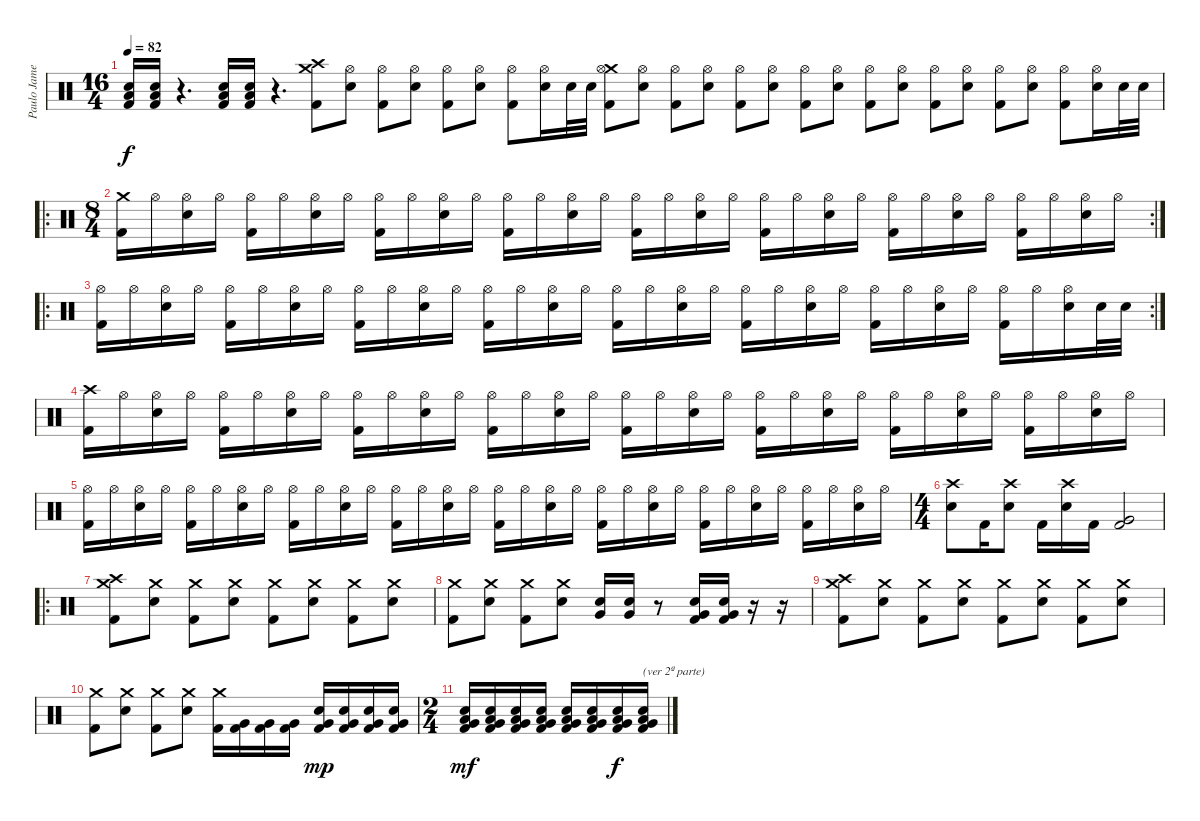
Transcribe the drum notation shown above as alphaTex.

\track ("Paulo James" "Paulo Jame") {instrument percussion}
\staff {score}
\articulation defaults
\ts (16 4)
\tempo 82
\clef neutral
\ks c
("Low Floor Tom (hit)" "Electric Snare (hit)" "Kick (hit) 2").16{dy f volume 6 balance 0} ("Low Floor Tom (hit)" "Electric Snare (hit)" "Kick (hit) 2").16 r.4{d} ("Low Floor Tom (hit)" "Electric Snare (hit)" "Kick (hit) 2").16{balance 16} ("Low Floor Tom (hit)" "Electric Snare (hit)" "Kick (hit) 2").16 r.4{d volume 13} ("Crash medium (hit)" "Crash high (hit)" "Kick (hit) 2").8 ("Hi-Hat (open)" "Electric Snare (hit)").8 ("Hi-Hat (open)" "Kick (hit) 2").8 ("Hi-Hat (open)" "Electric Snare (hit)").8 ("Hi-Hat (open)" "Kick (hit) 2").8 ("Hi-Hat (open)" "Electric Snare (hit)").8 ("Hi-Hat (open)" "Kick (hit) 2").8 ("Hi-Hat (open)" "Electric Snare (hit)").16 "Electric Snare (hit)".32 "Electric Snare (hit)".32 ("Crash medium (hit)" "Hi-Hat (open)" "Kick (hit) 2").8 ("Hi-Hat (open)" "Electric Snare (hit)").8 ("Hi-Hat (open)" "Kick (hit) 2").8 ("Hi-Hat (open)" "Electric Snare (hit)").8 ("Hi-Hat (open)" "Kick (hit) 2").8 ("Hi-Hat (open)" "Electric Snare (hit)").8 ("Hi-Hat (open)" "Kick (hit) 2").8 ("Hi-Hat (open)" "Electric Snare (hit)").8 ("Hi-Hat (open)" "Kick (hit) 2").8 ("Hi-Hat (open)" "Electric Snare (hit)").8 ("Hi-Hat (open)" "Kick (hit) 2").8 ("Hi-Hat (open)" "Electric Snare (hit)").8 ("Hi-Hat (open)" "Kick (hit) 2").8 ("Hi-Hat (open)" "Electric Snare (hit)").8 ("Hi-Hat (open)" "Kick (hit) 2").8 ("Hi-Hat (open)" "Electric Snare (hit)").16 "Electric Snare (hit)".32 "Electric Snare (hit)".32 |
\ro
\rc 2
\ts (8 4)
("Crash medium (hit)" "Kick (hit) 2").16 "Hi-Hat (open)".16 ("Hi-Hat (open)" "Electric Snare (hit)").16 "Hi-Hat (open)".16 ("Hi-Hat (open)" "Kick (hit) 2").16 "Hi-Hat (open)".16 ("Hi-Hat (open)" "Electric Snare (hit)").16 "Hi-Hat (open)".16 ("Hi-Hat (open)" "Kick (hit) 2").16 "Hi-Hat (open)".16 ("Hi-Hat (open)" "Electric Snare (hit)").16 "Hi-Hat (open)".16 ("Hi-Hat (open)" "Kick (hit) 2").16 "Hi-Hat (open)".16 ("Hi-Hat (open)" "Electric Snare (hit)").16 "Hi-Hat (open)".16 ("Hi-Hat (open)" "Kick (hit) 2").16 "Hi-Hat (open)".16 ("Hi-Hat (open)" "Electric Snare (hit)").16 "Hi-Hat (open)".16 ("Hi-Hat (open)" "Kick (hit) 2").16 "Hi-Hat (open)".16 ("Hi-Hat (open)" "Electric Snare (hit)").16 "Hi-Hat (open)".16 ("Hi-Hat (open)" "Kick (hit) 2").16 "Hi-Hat (open)".16 ("Hi-Hat (open)" "Electric Snare (hit)").16 "Hi-Hat (open)".16 ("Hi-Hat (open)" "Kick (hit) 2").16 "Hi-Hat (open)".16 ("Hi-Hat (open)" "Electric Snare (hit)").16 "Hi-Hat (open)".16 |
\ro
\rc 2
("Hi-Hat (open)" "Kick (hit) 2").16 "Hi-Hat (open)".16 ("Hi-Hat (open)" "Electric Snare (hit)").16 "Hi-Hat (open)".16 ("Hi-Hat (open)" "Kick (hit) 2").16 "Hi-Hat (open)".16 ("Hi-Hat (open)" "Electric Snare (hit)").16 "Hi-Hat (open)".16 ("Hi-Hat (open)" "Kick (hit) 2").16 "Hi-Hat (open)".16 ("Hi-Hat (open)" "Electric Snare (hit)").16 "Hi-Hat (open)".16 ("Hi-Hat (open)" "Kick (hit) 2").16 "Hi-Hat (open)".16 ("Hi-Hat (open)" "Electric Snare (hit)").16 "Hi-Hat (open)".16 ("Hi-Hat (open)" "Kick (hit) 2").16 "Hi-Hat (open)".16 ("Hi-Hat (open)" "Electric Snare (hit)").16 "Hi-Hat (open)".16 ("Hi-Hat (open)" "Kick (hit) 2").16 "Hi-Hat (open)".16 ("Hi-Hat (open)" "Electric Snare (hit)").16 "Hi-Hat (open)".16 ("Hi-Hat (open)" "Kick (hit) 2").16 "Hi-Hat (open)".16 ("Hi-Hat (open)" "Electric Snare (hit)").16 "Hi-Hat (open)".16 ("Hi-Hat (open)" "Kick (hit) 2").16 "Hi-Hat (open)".16 ("Hi-Hat (open)" "Electric Snare (hit)").16 "Electric Snare (hit)".32 "Electric Snare (hit)".32 |
("Crash high (hit)" "Kick (hit) 2").16 "Hi-Hat (open)".16 ("Hi-Hat (open)" "Electric Snare (hit)").16 "Hi-Hat (open)".16 ("Hi-Hat (open)" "Kick (hit) 2").16 "Hi-Hat (open)".16 ("Hi-Hat (open)" "Electric Snare (hit)").16 "Hi-Hat (open)".16 ("Hi-Hat (open)" "Kick (hit) 2").16 "Hi-Hat (open)".16 ("Hi-Hat (open)" "Electric Snare (hit)").16 "Hi-Hat (open)".16 ("Hi-Hat (open)" "Kick (hit) 2").16 "Hi-Hat (open)".16 ("Hi-Hat (open)" "Electric Snare (hit)").16 "Hi-Hat (open)".16 ("Hi-Hat (open)" "Kick (hit) 2").16 "Hi-Hat (open)".16 ("Hi-Hat (open)" "Electric Snare (hit)").16 "Hi-Hat (open)".16 ("Hi-Hat (open)" "Kick (hit) 2").16 "Hi-Hat (open)".16 ("Hi-Hat (open)" "Electric Snare (hit)").16 "Hi-Hat (open)".16 ("Hi-Hat (open)" "Kick (hit) 2").16 "Hi-Hat (open)".16 ("Hi-Hat (open)" "Electric Snare (hit)").16 "Hi-Hat (open)".16 ("Hi-Hat (open)" "Kick (hit) 2").16 "Hi-Hat (open)".16 ("Hi-Hat (open)" "Electric Snare (hit)").16 "Hi-Hat (open)".16 |
("Hi-Hat (open)" "Kick (hit) 2").16 "Hi-Hat (open)".16 ("Hi-Hat (open)" "Electric Snare (hit)").16 "Hi-Hat (open)".16 ("Hi-Hat (open)" "Kick (hit) 2").16 "Hi-Hat (open)".16 ("Hi-Hat (open)" "Electric Snare (hit)").16 "Hi-Hat (open)".16 ("Hi-Hat (open)" "Kick (hit) 2").16 "Hi-Hat (open)".16 ("Hi-Hat (open)" "Electric Snare (hit)").16 "Hi-Hat (open)".16 ("Hi-Hat (open)" "Kick (hit) 2").16 "Hi-Hat (open)".16 ("Hi-Hat (open)" "Electric Snare (hit)").16 "Hi-Hat (open)".16 ("Hi-Hat (open)" "Kick (hit) 2").16 "Hi-Hat (open)".16 ("Hi-Hat (open)" "Electric Snare (hit)").16 "Hi-Hat (open)".16 ("Hi-Hat (open)" "Kick (hit) 2").16 "Hi-Hat (open)".16 ("Hi-Hat (open)" "Electric Snare (hit)").16 "Hi-Hat (open)".16 ("Hi-Hat (open)" "Kick (hit) 2").16 "Hi-Hat (open)".16 ("Hi-Hat (open)" "Electric Snare (hit)").16 "Hi-Hat (open)".16 ("Hi-Hat (open)" "Kick (hit) 2").16 "Hi-Hat (open)".16 ("Hi-Hat (open)" "Electric Snare (hit)").16 "Hi-Hat (open)".16 |
\ts (4 4)
("Crash high (hit)" "Electric Snare (hit)").8 "Kick (hit) 2".16 ("Crash high (hit)" "Electric Snare (hit)").8 "Kick (hit) 2".16 ("Crash high (hit)" "Electric Snare (hit)").16 "Kick (hit) 2".16 ("Very Low Tom (hit)" "Kick (hit) 2").2 |
\ro
("Crash high (hit)" "Crash medium (hit)" "Kick (hit) 2").8 ("Crash medium (hit)" "Electric Snare (hit)").8 ("Crash medium (hit)" "Kick (hit) 2").8 ("Crash medium (hit)" "Electric Snare (hit)").8 ("Crash medium (hit)" "Kick (hit) 2").8 ("Crash medium (hit)" "Electric Snare (hit)").8 ("Crash medium (hit)" "Kick (hit) 2").8 ("Crash medium (hit)" "Electric Snare (hit)").8 |
("Crash medium (hit)" "Kick (hit) 2").8 ("Crash medium (hit)" "Electric Snare (hit)").8 ("Crash medium (hit)" "Kick (hit) 2").8 ("Crash medium (hit)" "Electric Snare (hit)").8 ("Very Low Tom (hit)" "Electric Snare (hit)").16 ("Very Low Tom (hit)" "Electric Snare (hit)").16 r.8 ("Very Low Tom (hit)" "Electric Snare (hit)" "Kick (hit) 2").16 ("Very Low Tom (hit)" "Electric Snare (hit)" "Kick (hit) 2").16 r.16 r.16 |
("Crash high (hit)" "Crash medium (hit)" "Kick (hit) 2").8 ("Crash medium (hit)" "Electric Snare (hit)").8 ("Crash medium (hit)" "Kick (hit) 2").8 ("Crash medium (hit)" "Electric Snare (hit)").8 ("Crash medium (hit)" "Kick (hit) 2").8 ("Crash medium (hit)" "Electric Snare (hit)").8 ("Crash medium (hit)" "Kick (hit) 2").8 ("Crash medium (hit)" "Electric Snare (hit)").8 |
("Crash medium (hit)" "Kick (hit) 2").8 ("Crash medium (hit)" "Electric Snare (hit)").8 ("Crash medium (hit)" "Kick (hit) 2").8 ("Crash medium (hit)" "Electric Snare (hit)").8 ("Crash medium (hit)" "Kick (hit) 2").16 ("Very Low Tom (hit)" "Kick (hit) 2").16 ("Very Low Tom (hit)" "Kick (hit) 2").16 ("Very Low Tom (hit)" "Kick (hit) 2").16 ("Very Low Tom (hit)" "Electric Snare (hit)" "Kick (hit) 2").16{dy mp} ("Very Low Tom (hit)" "Electric Snare (hit)" "Kick (hit) 2").16 ("Very Low Tom (hit)" "Electric Snare (hit)" "Kick (hit) 2").16 ("Very Low Tom (hit)" "Electric Snare (hit)" "Kick (hit) 2").16 |
\ts (2 4)
("Very Low Tom (hit)" "Electric Snare (hit)" "Kick (hit) 2" "Low Floor Tom (hit)").16{dy mf} ("Very Low Tom (hit)" "Electric Snare (hit)" "Kick (hit) 2" "Low Floor Tom (hit)").16 ("Very Low Tom (hit)" "Electric Snare (hit)" "Kick (hit) 2" "Low Floor Tom (hit)").16 ("Very Low Tom (hit)" "Electric Snare (hit)" "Kick (hit) 2" "Low Floor Tom (hit)").16 ("Very Low Tom (hit)" "Electric Snare (hit)" "Kick (hit) 2" "Low Floor Tom (hit)").16 ("Very Low Tom (hit)" "Electric Snare (hit)" "Kick (hit) 2" "Low Floor Tom (hit)").16 ("Very Low Tom (hit)" "Electric Snare (hit)" "Kick (hit) 2" "Low Floor Tom (hit)").16{dy f} ("Very Low Tom (hit)" "Electric Snare (hit)" "Kick (hit) 2" "Low Floor Tom (hit)").16{txt "(ver 2ª parte)"}
